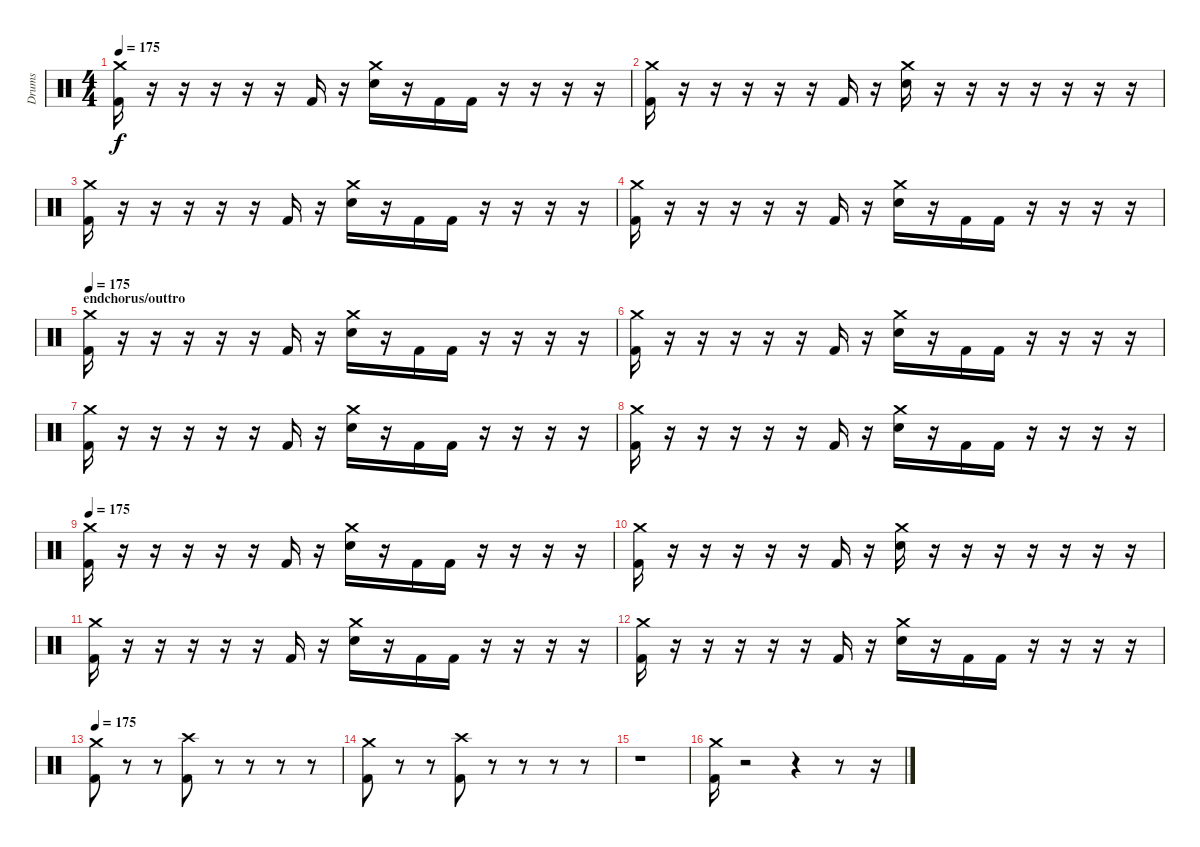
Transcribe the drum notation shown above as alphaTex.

\track ("Drums" "Drums") {instrument percussion}
\staff {score}
\articulation defaults
\ts (4 4)
\tempo 175
\clef neutral
\ks c
("Crash medium (hit)" "Kick (hit) 2").16{dy f} r.16 r.16 r.16 r.16 r.16 "Kick (hit) 2".16 r.16 ("Crash medium (hit)" "Electric Snare (hit)").16 r.16 "Kick (hit) 2".16 "Kick (hit) 2".16 r.16 r.16 r.16 r.16 |
("Crash medium (hit)" "Kick (hit) 2").16 r.16 r.16 r.16 r.16 r.16 "Kick (hit) 2".16 r.16 ("Crash medium (hit)" "Electric Snare (hit)").16 r.16 r.16 r.16 r.16 r.16 r.16 r.16 |
("Crash medium (hit)" "Kick (hit) 2").16 r.16 r.16 r.16 r.16 r.16 "Kick (hit) 2".16 r.16 ("Crash medium (hit)" "Electric Snare (hit)").16 r.16 "Kick (hit) 2".16 "Kick (hit) 2".16 r.16 r.16 r.16 r.16 |
("Crash medium (hit)" "Kick (hit) 2").16 r.16 r.16 r.16 r.16 r.16 "Kick (hit) 2".16 r.16 ("Crash medium (hit)" "Electric Snare (hit)").16 r.16 "Kick (hit) 2".16 "Kick (hit) 2".16 r.16 r.16 r.16 r.16 |
\section ("" "endchorus/outtro")
\tempo 175
("Crash medium (hit)" "Kick (hit) 2").16 r.16 r.16 r.16 r.16 r.16 "Kick (hit) 2".16 r.16 ("Crash medium (hit)" "Electric Snare (hit)").16 r.16 "Kick (hit) 2".16 "Kick (hit) 2".16 r.16 r.16 r.16 r.16 |
("Crash medium (hit)" "Kick (hit) 2").16 r.16 r.16 r.16 r.16 r.16 "Kick (hit) 2".16 r.16 ("Crash medium (hit)" "Electric Snare (hit)").16 r.16 "Kick (hit) 2".16 "Kick (hit) 2".16 r.16 r.16 r.16 r.16 |
("Crash medium (hit)" "Kick (hit) 2").16 r.16 r.16 r.16 r.16 r.16 "Kick (hit) 2".16 r.16 ("Crash medium (hit)" "Electric Snare (hit)").16 r.16 "Kick (hit) 2".16 "Kick (hit) 2".16 r.16 r.16 r.16 r.16 |
("Crash medium (hit)" "Kick (hit) 2").16 r.16 r.16 r.16 r.16 r.16 "Kick (hit) 2".16 r.16 ("Crash medium (hit)" "Electric Snare (hit)").16 r.16 "Kick (hit) 2".16 "Kick (hit) 2".16 r.16 r.16 r.16 r.16 |
\tempo 175
("Crash medium (hit)" "Kick (hit) 2").16 r.16 r.16 r.16 r.16 r.16 "Kick (hit) 2".16 r.16 ("Crash medium (hit)" "Electric Snare (hit)").16 r.16 "Kick (hit) 2".16 "Kick (hit) 2".16 r.16 r.16 r.16 r.16 |
("Crash medium (hit)" "Kick (hit) 2").16 r.16 r.16 r.16 r.16 r.16 "Kick (hit) 2".16 r.16 ("Crash medium (hit)" "Electric Snare (hit)").16 r.16 r.16 r.16 r.16 r.16 r.16 r.16 |
("Crash medium (hit)" "Kick (hit) 2").16 r.16 r.16 r.16 r.16 r.16 "Kick (hit) 2".16 r.16 ("Crash medium (hit)" "Electric Snare (hit)").16 r.16 "Kick (hit) 2".16 "Kick (hit) 2".16 r.16 r.16 r.16 r.16 |
("Crash medium (hit)" "Kick (hit) 2").16 r.16 r.16 r.16 r.16 r.16 "Kick (hit) 2".16 r.16 ("Crash medium (hit)" "Electric Snare (hit)").16 r.16 "Kick (hit) 2".16 "Kick (hit) 2".16 r.16 r.16 r.16 r.16 |
\tempo 175
("Crash medium (hit)" "Kick (hit) 2").8 r.8 r.8 ("Crash high (hit)" "Kick (hit) 2").8 r.8 r.8 r.8 r.8 |
("Crash medium (hit)" "Kick (hit) 2").8 r.8 r.8 ("Crash high (hit)" "Kick (hit) 2").8 r.8 r.8 r.8 r.8 |
r.1 |
("Crash medium (hit)" "Kick (hit) 2").16 r.2 r.4 r.8 r.16
